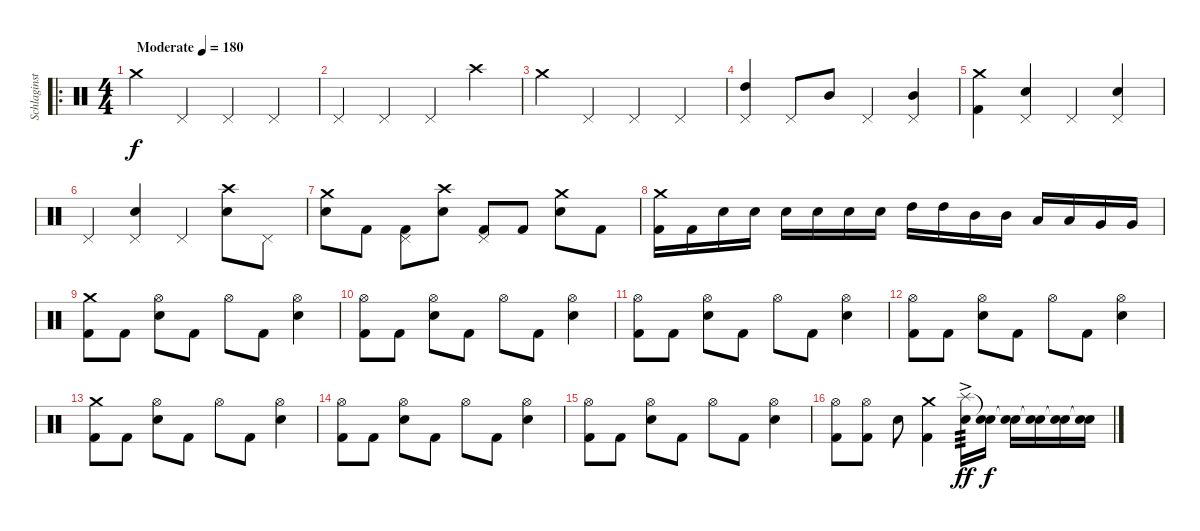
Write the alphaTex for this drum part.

\track ("Schlaginstrumente - Auswahl" "Schlaginst") {instrument percussion}
\staff {score}
\articulation defaults
\ro
\ts (4 4)
\tempo (180 "Moderate")
\clef neutral
\ks c "Crash medium (hit)".4{dy f} "Pedal Hi-Hat (hit)".4 "Pedal Hi-Hat (hit)".4 "Pedal Hi-Hat (hit)".4
|
"Pedal Hi-Hat (hit)".4 "Pedal Hi-Hat (hit)".4 "Pedal Hi-Hat (hit)".4 "Crash high (hit)".4 |
"Crash medium (hit)".4 "Pedal Hi-Hat (hit)".4 "Pedal Hi-Hat (hit)".4 "Pedal Hi-Hat (hit)".4 |
("Pedal Hi-Hat (hit)" "High Tom (hit)").4 "Pedal Hi-Hat (hit)".8 "Mid Tom (hit)".8 "Pedal Hi-Hat (hit)".4 ("Pedal Hi-Hat (hit)" "Mid Tom (hit)").4 |
("Crash medium (hit)" "Kick (hit) 2").4 ("Pedal Hi-Hat (hit)" "Electric Snare (hit)").4 "Pedal Hi-Hat (hit)".4 ("Pedal Hi-Hat (hit)" "Electric Snare (hit)").4 |
"Pedal Hi-Hat (hit)".4 ("Pedal Hi-Hat (hit)" "Electric Snare (hit)").4 "Pedal Hi-Hat (hit)".4 ("Crash high (hit)" "Electric Snare (hit)").8 "Pedal Hi-Hat (hit)".8 |
("Crash medium (hit)" "Electric Snare (hit)").8 "Kick (hit) 2".8 ("Pedal Hi-Hat (hit)" "Kick (hit) 2").8 ("Crash high (hit)" "Snare (hit) 2").8 ("Pedal Hi-Hat (hit)" "Kick (hit) 2").8 "Kick (hit) 2".8 ("Crash medium (hit)" "Electric Snare (hit)").8 "Kick (hit) 2".8 |
("Crash medium (hit)" "Kick (hit) 2").16 "Kick (hit) 2".16 "Electric Snare (hit)".16 "Electric Snare (hit)".16 "Electric Snare (hit)".16 "Electric Snare (hit)".16 "Electric Snare (hit)".16 "Electric Snare (hit)".16 "High Tom (hit)".16 "High Tom (hit)".16 "Mid Tom (hit)".16 "Mid Tom (hit)".16 "Low Tom (hit)".16 "Low Tom (hit)".16 "Very Low Tom (hit)".16 "Very Low Tom (hit)".16 |
("Crash medium (hit)" "Kick (hit) 2").8 "Kick (hit) 2".8 ("Hi-Hat (open)" "Electric Snare (hit)").8 "Kick (hit) 2".8 "Hi-Hat (open)".8 "Kick (hit) 2".8 ("Hi-Hat (open)" "Electric Snare (hit)").4 |
("Hi-Hat (open)" "Kick (hit) 2").8 "Kick (hit) 2".8 ("Hi-Hat (open)" "Electric Snare (hit)").8 "Kick (hit) 2".8 "Hi-Hat (open)".8 "Kick (hit) 2".8 ("Hi-Hat (open)" "Electric Snare (hit)").4 |
("Hi-Hat (open)" "Kick (hit) 2").8 "Kick (hit) 2".8 ("Hi-Hat (open)" "Electric Snare (hit)").8 "Kick (hit) 2".8 "Hi-Hat (open)".8 "Kick (hit) 2".8 ("Hi-Hat (open)" "Electric Snare (hit)").4 |
("Hi-Hat (open)" "Kick (hit) 2").8 "Kick (hit) 2".8 ("Hi-Hat (open)" "Electric Snare (hit)").8 "Kick (hit) 2".8 "Hi-Hat (open)".8 "Kick (hit) 2".8 ("Hi-Hat (open)" "Electric Snare (hit)").4 |
("Crash medium (hit)" "Kick (hit) 2").8 "Kick (hit) 2".8 ("Hi-Hat (open)" "Electric Snare (hit)").8 "Kick (hit) 2".8 "Hi-Hat (open)".8 "Kick (hit) 2".8 ("Hi-Hat (open)" "Electric Snare (hit)").4 |
("Hi-Hat (open)" "Kick (hit) 2").8 "Kick (hit) 2".8 ("Hi-Hat (open)" "Electric Snare (hit)").8 "Kick (hit) 2".8 "Hi-Hat (open)".8 "Kick (hit) 2".8 ("Hi-Hat (open)" "Electric Snare (hit)").4 |
("Hi-Hat (open)" "Kick (hit) 2").8 "Kick (hit) 2".8 ("Hi-Hat (open)" "Electric Snare (hit)").8 "Kick (hit) 2".8 "Hi-Hat (open)".8 "Kick (hit) 2".8 ("Hi-Hat (open)" "Electric Snare (hit)").4 |
("Hi-Hat (open)" "Kick (hit) 2").8 ("Hi-Hat (open)" "Kick (hit) 2").8 "Electric Snare (hit)".8 ("Crash medium (hit)" "Kick (hit) 2").4 ("Splash (hit)"{ac} "Electric Snare (hit)").16{tp 3 dy ff} ("Snare (hit)"{t} "Electric Snare (hit)").16{dy f} ("Snare (hit)"{t} "Electric Snare (hit)").16 ("Snare (hit)"{t} "Electric Snare (hit)").16 ("Snare (hit)"{t} "Electric Snare (hit)").16 ("Snare (hit)"{t} "Electric Snare (hit)").16
